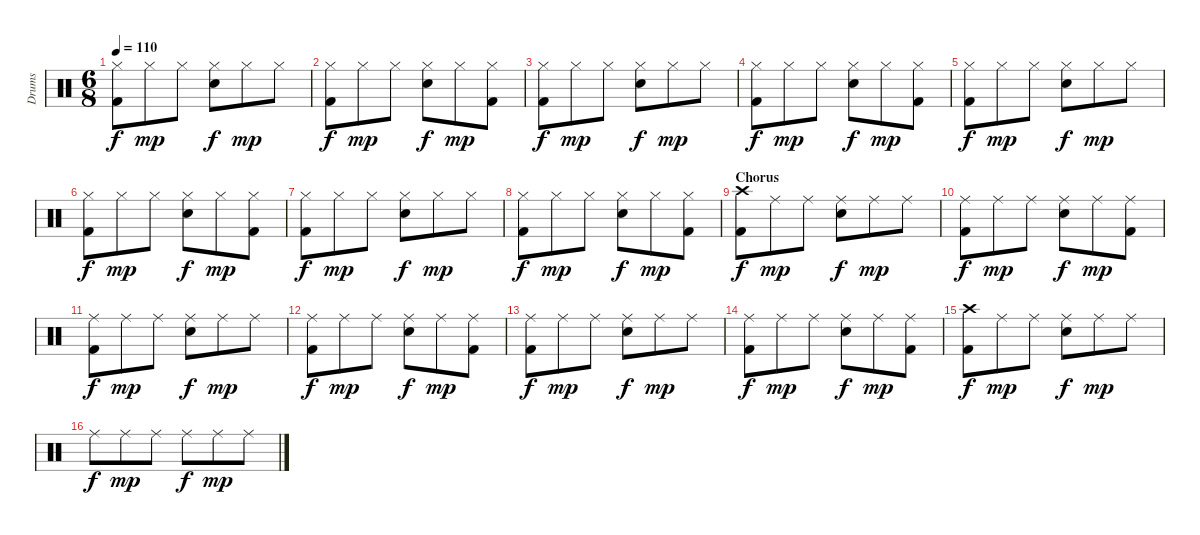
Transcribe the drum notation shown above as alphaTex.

\track ("Drums" "Drums") {instrument percussion}
\staff {score}
\articulation defaults
\ts (6 8)
\tempo 110
\clef neutral
\ks c
("Hi-Hat (closed)" "Kick (hit) 2").8{dy f} "Hi-Hat (closed)".8{dy mp} "Hi-Hat (closed)".8 ("Hi-Hat (closed)" "Electric Snare (hit)").8{dy f} "Hi-Hat (closed)".8{dy mp} "Hi-Hat (closed)".8 |
("Hi-Hat (closed)" "Kick (hit) 2").8{dy f} "Hi-Hat (closed)".8{dy mp} "Hi-Hat (closed)".8 ("Hi-Hat (closed)" "Electric Snare (hit)").8{dy f} "Hi-Hat (closed)".8{dy mp} ("Hi-Hat (closed)" "Kick (hit) 2").8 |
("Hi-Hat (closed)" "Kick (hit) 2").8{dy f} "Hi-Hat (closed)".8{dy mp} "Hi-Hat (closed)".8 ("Hi-Hat (closed)" "Electric Snare (hit)").8{dy f} "Hi-Hat (closed)".8{dy mp} "Hi-Hat (closed)".8 |
("Hi-Hat (closed)" "Kick (hit) 2").8{dy f} "Hi-Hat (closed)".8{dy mp} "Hi-Hat (closed)".8 ("Hi-Hat (closed)" "Electric Snare (hit)").8{dy f} "Hi-Hat (closed)".8{dy mp} ("Hi-Hat (closed)" "Kick (hit) 2").8 |
("Hi-Hat (closed)" "Kick (hit) 2").8{dy f} "Hi-Hat (closed)".8{dy mp} "Hi-Hat (closed)".8 ("Hi-Hat (closed)" "Electric Snare (hit)").8{dy f} "Hi-Hat (closed)".8{dy mp} "Hi-Hat (closed)".8 |
("Hi-Hat (closed)" "Kick (hit) 2").8{dy f} "Hi-Hat (closed)".8{dy mp} "Hi-Hat (closed)".8 ("Hi-Hat (closed)" "Electric Snare (hit)").8{dy f} "Hi-Hat (closed)".8{dy mp} ("Hi-Hat (closed)" "Kick (hit) 2").8 |
("Hi-Hat (closed)" "Kick (hit) 2").8{dy f} "Hi-Hat (closed)".8{dy mp} "Hi-Hat (closed)".8 ("Hi-Hat (closed)" "Electric Snare (hit)").8{dy f} "Hi-Hat (closed)".8{dy mp} "Hi-Hat (closed)".8 |
("Hi-Hat (closed)" "Kick (hit) 2").8{dy f} "Hi-Hat (closed)".8{dy mp} "Hi-Hat (closed)".8 ("Hi-Hat (closed)" "Electric Snare (hit)").8{dy f} "Hi-Hat (closed)".8{dy mp} ("Hi-Hat (closed)" "Kick (hit) 2").8 |
\section ("" "Chorus")
("Crash high (hit)" "Kick (hit) 2").8{dy f} "Ride (middle)".8{dy mp} "Ride (middle)".8 ("Ride (middle)" "Electric Snare (hit)").8{dy f} "Ride (middle)".8{dy mp} "Ride (middle)".8 |
("Ride (middle)" "Kick (hit) 2").8{dy f} "Ride (middle)".8{dy mp} "Ride (middle)".8 ("Ride (middle)" "Electric Snare (hit)").8{dy f} "Ride (middle)".8{dy mp} ("Ride (middle)" "Kick (hit) 2").8 |
("Ride (middle)" "Kick (hit) 2").8{dy f} "Ride (middle)".8{dy mp} "Ride (middle)".8 ("Ride (middle)" "Electric Snare (hit)").8{dy f} "Ride (middle)".8{dy mp} "Ride (middle)".8 |
("Ride (middle)" "Kick (hit) 2").8{dy f} "Ride (middle)".8{dy mp} "Ride (middle)".8 ("Ride (middle)" "Electric Snare (hit)").8{dy f} "Ride (middle)".8{dy mp} ("Ride (middle)" "Kick (hit) 2").8 |
("Ride (middle)" "Kick (hit) 2").8{dy f} "Ride (middle)".8{dy mp} "Ride (middle)".8 ("Ride (middle)" "Electric Snare (hit)").8{dy f} "Ride (middle)".8{dy mp} "Ride (middle)".8 |
("Ride (middle)" "Kick (hit) 2").8{dy f} "Ride (middle)".8{dy mp} "Ride (middle)".8 ("Ride (middle)" "Electric Snare (hit)").8{dy f} "Ride (middle)".8{dy mp} ("Ride (middle)" "Kick (hit) 2").8 |
("Crash high (hit)" "Kick (hit) 2").8{dy f} "Ride (middle)".8{dy mp} "Ride (middle)".8 ("Ride (middle)" "Electric Snare (hit)").8{dy f} "Ride (middle)".8{dy mp} "Ride (middle)".8 |
"Ride (middle)".8{dy f} "Ride (middle)".8{dy mp} "Ride (middle)".8 "Ride (middle)".8{dy f} "Ride (middle)".8{dy mp} "Ride (middle)".8
